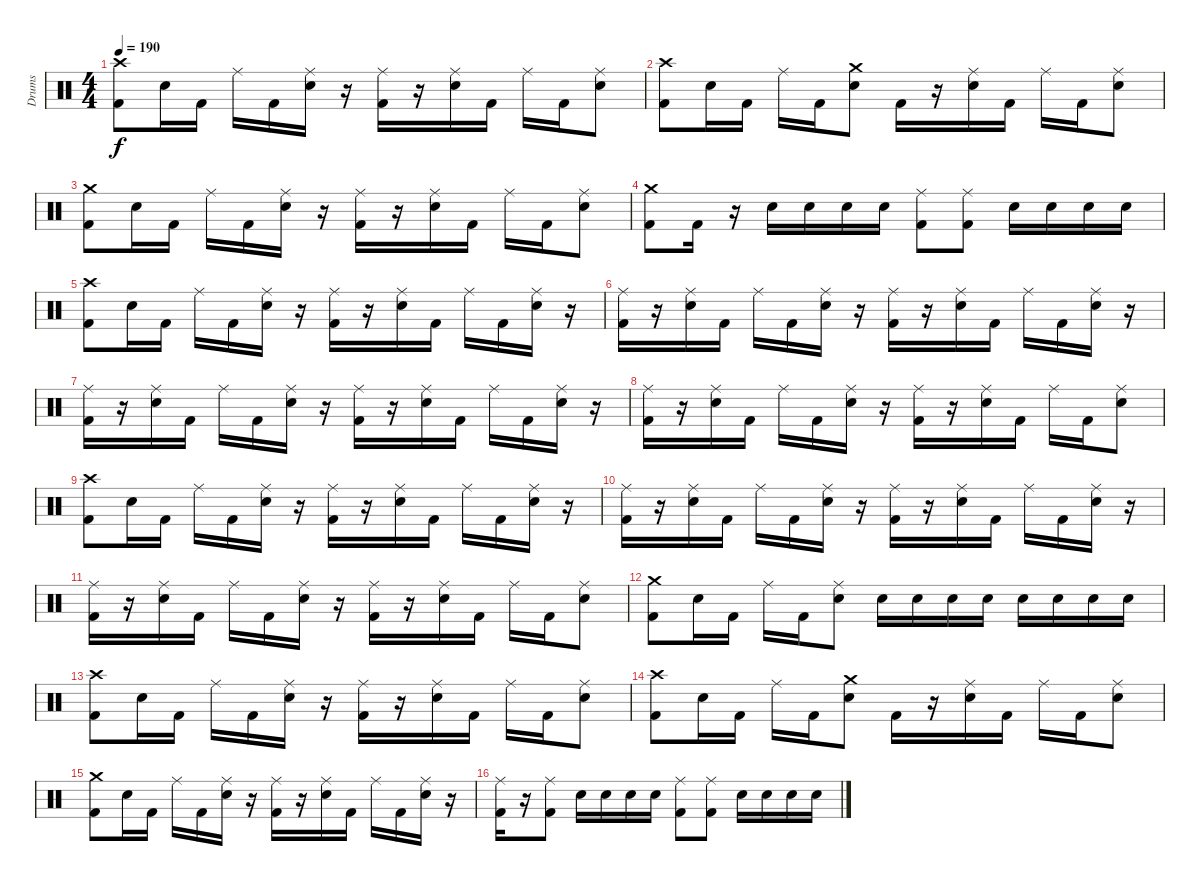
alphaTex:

\track ("Drums" "Drums") {instrument percussion}
\staff {score}
\articulation defaults
\ts (4 4)
\tempo 190
\clef neutral
\ks c
("Kick (hit) 2" "Crash high (hit)").8{dy f} "Electric Snare (hit)".16 "Kick (hit) 2".16 "Ride (middle)".16 "Kick (hit) 2".16 ("Electric Snare (hit)" "Ride (middle)").16 r.16 ("Kick (hit) 2" "Ride (middle)").16 r.16 ("Electric Snare (hit)" "Ride (middle)").16 "Kick (hit) 2".16 "Ride (middle)".16 "Kick (hit) 2".16 ("Electric Snare (hit)" "Ride (middle)").8 |
("Kick (hit) 2" "Crash high (hit)").8 "Electric Snare (hit)".16 "Kick (hit) 2".16 "Ride (middle)".16 "Kick (hit) 2".16 ("Electric Snare (hit)" "Crash medium (hit)").8 "Kick (hit) 2".16 r.16 ("Electric Snare (hit)" "Ride (middle)").16 "Kick (hit) 2".16 "Ride (middle)".16 "Kick (hit) 2".16 ("Electric Snare (hit)" "Ride (middle)").8 |
("Kick (hit) 2" "Crash medium (hit)").8 "Electric Snare (hit)".16 "Kick (hit) 2".16 "Ride (middle)".16 "Kick (hit) 2".16 ("Electric Snare (hit)" "Ride (middle)").16 r.16 ("Kick (hit) 2" "Ride (middle)").16 r.16 ("Electric Snare (hit)" "Ride (middle)").16 "Kick (hit) 2".16 "Ride (middle)".16 "Kick (hit) 2".16 ("Electric Snare (hit)" "Ride (middle)").8 |
("Kick (hit) 2" "Crash medium (hit)").8 "Kick (hit) 2".16 r.16 "Electric Snare (hit)".16 "Electric Snare (hit)".16 "Electric Snare (hit)".16 "Electric Snare (hit)".16 ("Kick (hit) 2" "Ride (middle)").8 ("Kick (hit) 2" "Ride (middle)").8 "Electric Snare (hit)".16 "Electric Snare (hit)".16 "Electric Snare (hit)".16 "Electric Snare (hit)".16 |
("Kick (hit) 2" "Crash high (hit)").8 "Electric Snare (hit)".16 "Kick (hit) 2".16 "Ride (middle)".16 "Kick (hit) 2".16 ("Electric Snare (hit)" "Ride (middle)").16 r.16 ("Kick (hit) 2" "Ride (middle)").16 r.16 ("Electric Snare (hit)" "Ride (middle)").16 "Kick (hit) 2".16 "Ride (middle)".16 "Kick (hit) 2".16 ("Electric Snare (hit)" "Ride (middle)").16 r.16 |
("Kick (hit) 2" "Ride (middle)").16 r.16 ("Electric Snare (hit)" "Ride (middle)").16 "Kick (hit) 2".16 "Ride (middle)".16 "Kick (hit) 2".16 ("Electric Snare (hit)" "Ride (middle)").16 r.16 ("Kick (hit) 2" "Ride (middle)").16 r.16 ("Electric Snare (hit)" "Ride (middle)").16 "Kick (hit) 2".16 "Ride (middle)".16 "Kick (hit) 2".16 ("Electric Snare (hit)" "Ride (middle)").16 r.16 |
("Kick (hit) 2" "Ride (middle)").16 r.16 ("Electric Snare (hit)" "Ride (middle)").16 "Kick (hit) 2".16 "Ride (middle)".16 "Kick (hit) 2".16 ("Electric Snare (hit)" "Ride (middle)").16 r.16 ("Kick (hit) 2" "Ride (middle)").16 r.16 ("Electric Snare (hit)" "Ride (middle)").16 "Kick (hit) 2".16 "Ride (middle)".16 "Kick (hit) 2".16 ("Electric Snare (hit)" "Ride (middle)").16 r.16 |
("Kick (hit) 2" "Ride (middle)").16 r.16 ("Electric Snare (hit)" "Ride (middle)").16 "Kick (hit) 2".16 "Ride (middle)".16 "Kick (hit) 2".16 ("Electric Snare (hit)" "Ride (middle)").16 r.16 ("Kick (hit) 2" "Ride (middle)").16 r.16 ("Electric Snare (hit)" "Ride (middle)").16 "Kick (hit) 2".16 "Ride (middle)".16 "Kick (hit) 2".16 ("Electric Snare (hit)" "Ride (middle)").8 |
("Kick (hit) 2" "Crash high (hit)").8 "Electric Snare (hit)".16 "Kick (hit) 2".16 "Ride (middle)".16 "Kick (hit) 2".16 ("Electric Snare (hit)" "Ride (middle)").16 r.16 ("Kick (hit) 2" "Ride (middle)").16 r.16 ("Electric Snare (hit)" "Ride (middle)").16 "Kick (hit) 2".16 "Ride (middle)".16 "Kick (hit) 2".16 ("Electric Snare (hit)" "Ride (middle)").16 r.16 |
("Kick (hit) 2" "Ride (middle)").16 r.16 ("Electric Snare (hit)" "Ride (middle)").16 "Kick (hit) 2".16 "Ride (middle)".16 "Kick (hit) 2".16 ("Electric Snare (hit)" "Ride (middle)").16 r.16 ("Kick (hit) 2" "Ride (middle)").16 r.16 ("Electric Snare (hit)" "Ride (middle)").16 "Kick (hit) 2".16 "Ride (middle)".16 "Kick (hit) 2".16 ("Electric Snare (hit)" "Ride (middle)").16 r.16 |
("Kick (hit) 2" "Ride (middle)").16 r.16 ("Electric Snare (hit)" "Ride (middle)").16 "Kick (hit) 2".16 "Ride (middle)".16 "Kick (hit) 2".16 ("Electric Snare (hit)" "Ride (middle)").16 r.16 ("Kick (hit) 2" "Ride (middle)").16 r.16 ("Electric Snare (hit)" "Ride (middle)").16 "Kick (hit) 2".16 "Ride (middle)".16 "Kick (hit) 2".16 ("Electric Snare (hit)" "Ride (middle)").8 |
("Kick (hit) 2" "Crash medium (hit)").8 "Electric Snare (hit)".16 "Kick (hit) 2".16 "Ride (middle)".16 "Kick (hit) 2".16 ("Electric Snare (hit)" "Ride (middle)").8 "Electric Snare (hit)".16 "Electric Snare (hit)".16 "Electric Snare (hit)".16 "Electric Snare (hit)".16 "Electric Snare (hit)".16 "Electric Snare (hit)".16 "Electric Snare (hit)".16 "Electric Snare (hit)".16 |
("Kick (hit) 2" "Crash high (hit)").8 "Electric Snare (hit)".16 "Kick (hit) 2".16 "Ride (middle)".16 "Kick (hit) 2".16 ("Electric Snare (hit)" "Ride (middle)").16 r.16 ("Kick (hit) 2" "Ride (middle)").16 r.16 ("Electric Snare (hit)" "Ride (middle)").16 "Kick (hit) 2".16 "Ride (middle)".16 "Kick (hit) 2".16 ("Electric Snare (hit)" "Ride (middle)").8 |
("Kick (hit) 2" "Crash high (hit)").8 "Electric Snare (hit)".16 "Kick (hit) 2".16 "Ride (middle)".16 "Kick (hit) 2".16 ("Electric Snare (hit)" "Crash medium (hit)").8 "Kick (hit) 2".16 r.16 ("Electric Snare (hit)" "Ride (middle)").16 "Kick (hit) 2".16 "Ride (middle)".16 "Kick (hit) 2".16 ("Electric Snare (hit)" "Ride (middle)").8 |
("Kick (hit) 2" "Crash medium (hit)").8 "Electric Snare (hit)".16 "Kick (hit) 2".16 "Ride (middle)".16 "Kick (hit) 2".16 ("Electric Snare (hit)" "Ride (middle)").16 r.16 ("Kick (hit) 2" "Ride (middle)").16 r.16 ("Electric Snare (hit)" "Ride (middle)").16 "Kick (hit) 2".16 "Ride (middle)".16 "Kick (hit) 2".16 ("Electric Snare (hit)" "Ride (middle)").16 r.16 |
("Kick (hit) 2" "Ride (middle)").16 r.16 ("Kick (hit) 2" "Ride (middle)").8 "Electric Snare (hit)".16 "Electric Snare (hit)".16 "Electric Snare (hit)".16 "Electric Snare (hit)".16 ("Kick (hit) 2" "Ride (middle)").8 ("Kick (hit) 2" "Ride (middle)").8 "Electric Snare (hit)".16 "Electric Snare (hit)".16 "Electric Snare (hit)".16 "Electric Snare (hit)".16
